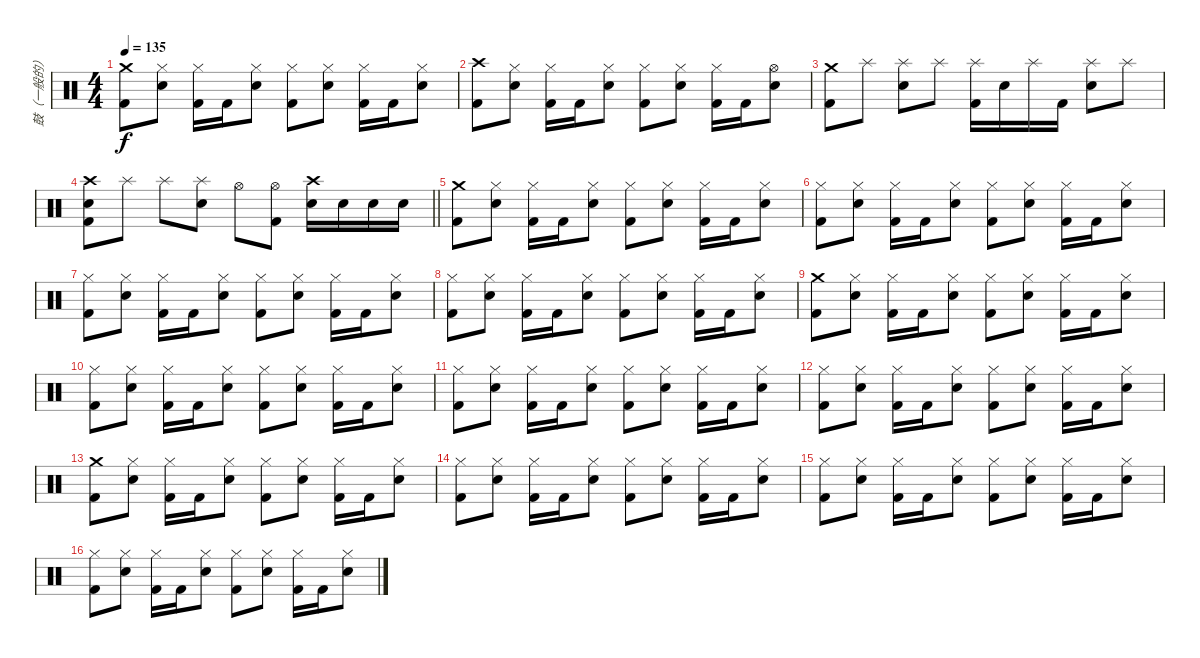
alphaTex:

\track ("鼓（一般的）" "鼓（一般的）") {instrument percussion}
\staff {score}
\articulation defaults
\ts (4 4)
\tempo 135
\clef neutral
\ks c
("Crash medium (hit)" "Kick (hit) 2").8{dy f} ("Hi-Hat (closed)" "Snare (hit) 2").8 ("Hi-Hat (closed)" "Kick (hit) 2").16 "Kick (hit) 2".16 ("Hi-Hat (closed)" "Snare (hit) 2").8 ("Hi-Hat (closed)" "Kick (hit) 2").8 ("Hi-Hat (closed)" "Snare (hit) 2").8 ("Hi-Hat (closed)" "Kick (hit) 2").16 "Kick (hit) 2".16 ("Hi-Hat (closed)" "Snare (hit) 2").8 |
("Crash high (hit)" "Kick (hit) 2").8 ("Hi-Hat (closed)" "Snare (hit) 2").8 ("Hi-Hat (closed)" "Kick (hit) 2").16 "Kick (hit) 2".16 ("Hi-Hat (closed)" "Snare (hit) 2").8 ("Hi-Hat (closed)" "Kick (hit) 2").8 ("Hi-Hat (closed)" "Snare (hit) 2").8 ("Hi-Hat (closed)" "Kick (hit) 2").16 "Kick (hit) 2".16 ("Hi-Hat (open)" "Snare (hit) 2").8 |
("Crash medium (hit)" "Kick (hit) 2").8 "Splash (hit)".8 ("Splash (hit)" "Snare (hit) 2").8 "Splash (hit)".8 ("Splash (hit)" "Kick (hit) 2").16 "Snare (hit) 2".16 "Splash (hit)".16 "Kick (hit) 2".16 ("Splash (hit)" "Snare (hit) 2").8 "Splash (hit)".8 |
\barLineRight lightlight
("Crash high (hit)" "Snare (hit) 2" "Kick (hit) 2").8 "Splash (hit)".8 "Splash (hit)".8 ("Splash (hit)" "Snare (hit) 2").8 "Hi-Hat (open)".8 ("Hi-Hat (open)" "Kick (hit) 2").8 ("Crash high (hit)" "Snare (hit) 2").16 "Snare (hit) 2".16 "Snare (hit) 2".16 "Snare (hit) 2".16 |
("Crash medium (hit)" "Kick (hit) 2").8 ("Hi-Hat (closed)" "Snare (hit) 2").8 ("Hi-Hat (closed)" "Kick (hit) 2").16 "Kick (hit) 2".16 ("Hi-Hat (closed)" "Snare (hit) 2").8 ("Hi-Hat (closed)" "Kick (hit) 2").8 ("Hi-Hat (closed)" "Snare (hit) 2").8 ("Hi-Hat (closed)" "Kick (hit) 2").16 "Kick (hit) 2".16 ("Hi-Hat (closed)" "Snare (hit) 2").8 |
("Hi-Hat (closed)" "Kick (hit) 2").8 ("Hi-Hat (closed)" "Snare (hit) 2").8 ("Hi-Hat (closed)" "Kick (hit) 2").16 "Kick (hit) 2".16 ("Hi-Hat (closed)" "Snare (hit) 2").8 ("Hi-Hat (closed)" "Kick (hit) 2").8 ("Hi-Hat (closed)" "Snare (hit) 2").8 ("Hi-Hat (closed)" "Kick (hit) 2").16 "Kick (hit) 2".16 ("Hi-Hat (closed)" "Snare (hit) 2").8 |
("Hi-Hat (closed)" "Kick (hit) 2").8 ("Hi-Hat (closed)" "Snare (hit) 2").8 ("Hi-Hat (closed)" "Kick (hit) 2").16 "Kick (hit) 2".16 ("Hi-Hat (closed)" "Snare (hit) 2").8 ("Hi-Hat (closed)" "Kick (hit) 2").8 ("Hi-Hat (closed)" "Snare (hit) 2").8 ("Hi-Hat (closed)" "Kick (hit) 2").16 "Kick (hit) 2".16 ("Hi-Hat (closed)" "Snare (hit) 2").8 |
("Hi-Hat (closed)" "Kick (hit) 2").8 ("Hi-Hat (closed)" "Snare (hit) 2").8 ("Hi-Hat (closed)" "Kick (hit) 2").16 "Kick (hit) 2".16 ("Hi-Hat (closed)" "Snare (hit) 2").8 ("Hi-Hat (closed)" "Kick (hit) 2").8 ("Hi-Hat (closed)" "Snare (hit) 2").8 ("Hi-Hat (closed)" "Kick (hit) 2").16 "Kick (hit) 2".16 ("Hi-Hat (closed)" "Snare (hit) 2").8 |
("Crash medium (hit)" "Kick (hit) 2").8 ("Hi-Hat (closed)" "Snare (hit) 2").8 ("Hi-Hat (closed)" "Kick (hit) 2").16 "Kick (hit) 2".16 ("Hi-Hat (closed)" "Snare (hit) 2").8 ("Hi-Hat (closed)" "Kick (hit) 2").8 ("Hi-Hat (closed)" "Snare (hit) 2").8 ("Hi-Hat (closed)" "Kick (hit) 2").16 "Kick (hit) 2".16 ("Hi-Hat (closed)" "Snare (hit) 2").8 |
("Hi-Hat (closed)" "Kick (hit) 2").8 ("Hi-Hat (closed)" "Snare (hit) 2").8 ("Hi-Hat (closed)" "Kick (hit) 2").16 "Kick (hit) 2".16 ("Hi-Hat (closed)" "Snare (hit) 2").8 ("Hi-Hat (closed)" "Kick (hit) 2").8 ("Hi-Hat (closed)" "Snare (hit) 2").8 ("Hi-Hat (closed)" "Kick (hit) 2").16 "Kick (hit) 2".16 ("Hi-Hat (closed)" "Snare (hit) 2").8 |
("Hi-Hat (closed)" "Kick (hit) 2").8 ("Hi-Hat (closed)" "Snare (hit) 2").8 ("Hi-Hat (closed)" "Kick (hit) 2").16 "Kick (hit) 2".16 ("Hi-Hat (closed)" "Snare (hit) 2").8 ("Hi-Hat (closed)" "Kick (hit) 2").8 ("Hi-Hat (closed)" "Snare (hit) 2").8 ("Hi-Hat (closed)" "Kick (hit) 2").16 "Kick (hit) 2".16 ("Hi-Hat (closed)" "Snare (hit) 2").8 |
("Hi-Hat (closed)" "Kick (hit) 2").8 ("Hi-Hat (closed)" "Snare (hit) 2").8 ("Hi-Hat (closed)" "Kick (hit) 2").16 "Kick (hit) 2".16 ("Hi-Hat (closed)" "Snare (hit) 2").8 ("Hi-Hat (closed)" "Kick (hit) 2").8 ("Hi-Hat (closed)" "Snare (hit) 2").8 ("Hi-Hat (closed)" "Kick (hit) 2").16 "Kick (hit) 2".16 ("Hi-Hat (closed)" "Snare (hit) 2").8 |
("Crash medium (hit)" "Kick (hit) 2").8 ("Hi-Hat (closed)" "Snare (hit) 2").8 ("Hi-Hat (closed)" "Kick (hit) 2").16 "Kick (hit) 2".16 ("Hi-Hat (closed)" "Snare (hit) 2").8 ("Hi-Hat (closed)" "Kick (hit) 2").8 ("Hi-Hat (closed)" "Snare (hit) 2").8 ("Hi-Hat (closed)" "Kick (hit) 2").16 "Kick (hit) 2".16 ("Hi-Hat (closed)" "Snare (hit) 2").8 |
("Hi-Hat (closed)" "Kick (hit) 2").8 ("Hi-Hat (closed)" "Snare (hit) 2").8 ("Hi-Hat (closed)" "Kick (hit) 2").16 "Kick (hit) 2".16 ("Hi-Hat (closed)" "Snare (hit) 2").8 ("Hi-Hat (closed)" "Kick (hit) 2").8 ("Hi-Hat (closed)" "Snare (hit) 2").8 ("Hi-Hat (closed)" "Kick (hit) 2").16 "Kick (hit) 2".16 ("Hi-Hat (closed)" "Snare (hit) 2").8 |
("Hi-Hat (closed)" "Kick (hit) 2").8 ("Hi-Hat (closed)" "Snare (hit) 2").8 ("Hi-Hat (closed)" "Kick (hit) 2").16 "Kick (hit) 2".16 ("Hi-Hat (closed)" "Snare (hit) 2").8 ("Hi-Hat (closed)" "Kick (hit) 2").8 ("Hi-Hat (closed)" "Snare (hit) 2").8 ("Hi-Hat (closed)" "Kick (hit) 2").16 "Kick (hit) 2".16 ("Hi-Hat (closed)" "Snare (hit) 2").8 |
("Hi-Hat (closed)" "Kick (hit) 2").8 ("Hi-Hat (closed)" "Snare (hit) 2").8 ("Hi-Hat (closed)" "Kick (hit) 2").16 "Kick (hit) 2".16 ("Hi-Hat (closed)" "Snare (hit) 2").8 ("Hi-Hat (closed)" "Kick (hit) 2").8 ("Hi-Hat (closed)" "Snare (hit) 2").8 ("Hi-Hat (closed)" "Kick (hit) 2").16 "Kick (hit) 2".16 ("Hi-Hat (closed)" "Snare (hit) 2").8
